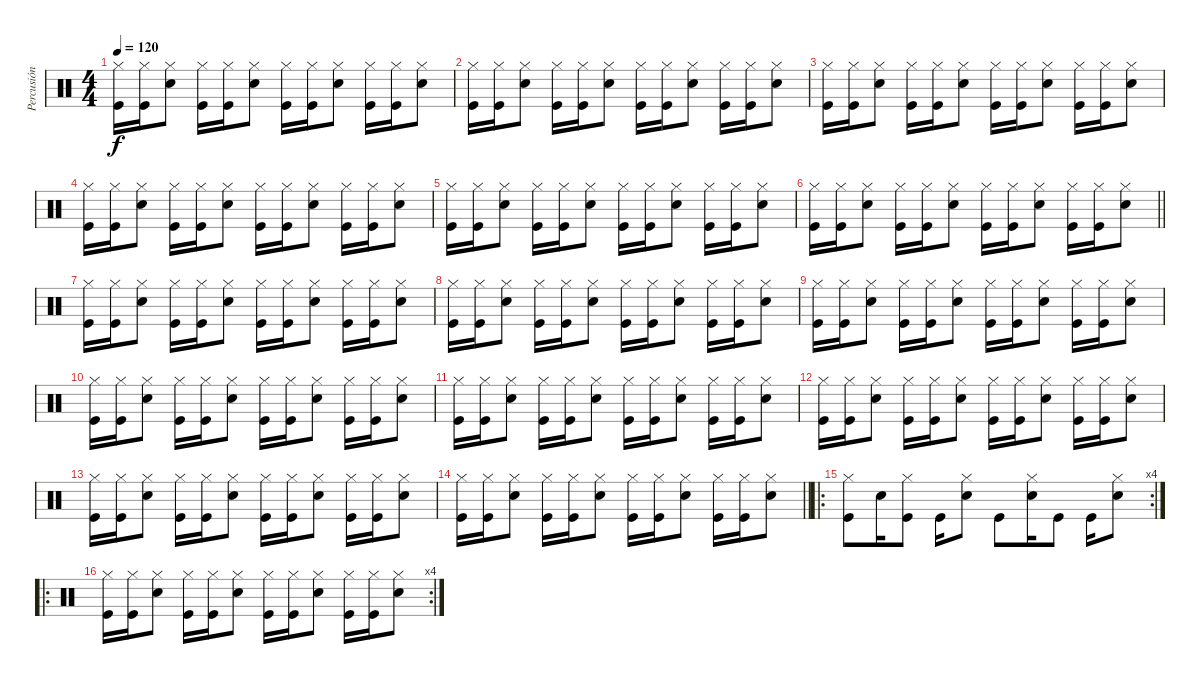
\track ("Percusión" "Percusión") {instrument percussion}
\staff {score}
\articulation defaults
\ts (4 4)
\tempo 120
\clef neutral
\ks c
("Hi-Hat (closed)" "Kick (hit)").16{dy f} ("Hi-Hat (closed)" "Kick (hit)").16 ("Hi-Hat (closed)" "Electric Snare (hit)").8 ("Hi-Hat (closed)" "Kick (hit)").16 ("Hi-Hat (closed)" "Kick (hit)").16 ("Hi-Hat (closed)" "Electric Snare (hit)").8 ("Hi-Hat (closed)" "Kick (hit)").16 ("Hi-Hat (closed)" "Kick (hit)").16 ("Hi-Hat (closed)" "Electric Snare (hit)").8 ("Hi-Hat (closed)" "Kick (hit)").16 ("Hi-Hat (closed)" "Kick (hit)").16 ("Hi-Hat (closed)" "Electric Snare (hit)").8 |
("Hi-Hat (closed)" "Kick (hit)").16 ("Hi-Hat (closed)" "Kick (hit)").16 ("Hi-Hat (closed)" "Electric Snare (hit)").8 ("Hi-Hat (closed)" "Kick (hit)").16 ("Hi-Hat (closed)" "Kick (hit)").16 ("Hi-Hat (closed)" "Electric Snare (hit)").8 ("Hi-Hat (closed)" "Kick (hit)").16 ("Hi-Hat (closed)" "Kick (hit)").16 ("Hi-Hat (closed)" "Electric Snare (hit)").8 ("Hi-Hat (closed)" "Kick (hit)").16 ("Hi-Hat (closed)" "Kick (hit)").16 ("Hi-Hat (closed)" "Electric Snare (hit)").8 |
("Hi-Hat (closed)" "Kick (hit)").16 ("Hi-Hat (closed)" "Kick (hit)").16 ("Hi-Hat (closed)" "Electric Snare (hit)").8 ("Hi-Hat (closed)" "Kick (hit)").16 ("Hi-Hat (closed)" "Kick (hit)").16 ("Hi-Hat (closed)" "Electric Snare (hit)").8 ("Hi-Hat (closed)" "Kick (hit)").16 ("Hi-Hat (closed)" "Kick (hit)").16 ("Hi-Hat (closed)" "Electric Snare (hit)").8 ("Hi-Hat (closed)" "Kick (hit)").16 ("Hi-Hat (closed)" "Kick (hit)").16 ("Hi-Hat (closed)" "Electric Snare (hit)").8 |
("Hi-Hat (closed)" "Kick (hit)").16 ("Hi-Hat (closed)" "Kick (hit)").16 ("Hi-Hat (closed)" "Electric Snare (hit)").8 ("Hi-Hat (closed)" "Kick (hit)").16 ("Hi-Hat (closed)" "Kick (hit)").16 ("Hi-Hat (closed)" "Electric Snare (hit)").8 ("Hi-Hat (closed)" "Kick (hit)").16 ("Hi-Hat (closed)" "Kick (hit)").16 ("Hi-Hat (closed)" "Electric Snare (hit)").8 ("Hi-Hat (closed)" "Kick (hit)").16 ("Hi-Hat (closed)" "Kick (hit)").16 ("Hi-Hat (closed)" "Electric Snare (hit)").8 |
("Hi-Hat (closed)" "Kick (hit)").16 ("Hi-Hat (closed)" "Kick (hit)").16 ("Hi-Hat (closed)" "Electric Snare (hit)").8 ("Hi-Hat (closed)" "Kick (hit)").16 ("Hi-Hat (closed)" "Kick (hit)").16 ("Hi-Hat (closed)" "Electric Snare (hit)").8 ("Hi-Hat (closed)" "Kick (hit)").16 ("Hi-Hat (closed)" "Kick (hit)").16 ("Hi-Hat (closed)" "Electric Snare (hit)").8 ("Hi-Hat (closed)" "Kick (hit)").16 ("Hi-Hat (closed)" "Kick (hit)").16 ("Hi-Hat (closed)" "Electric Snare (hit)").8 |
\barLineRight lightlight
("Hi-Hat (closed)" "Kick (hit)").16 ("Hi-Hat (closed)" "Kick (hit)").16 ("Hi-Hat (closed)" "Electric Snare (hit)").8 ("Hi-Hat (closed)" "Kick (hit)").16 ("Hi-Hat (closed)" "Kick (hit)").16 ("Hi-Hat (closed)" "Electric Snare (hit)").8 ("Hi-Hat (closed)" "Kick (hit)").16 ("Hi-Hat (closed)" "Kick (hit)").16 ("Hi-Hat (closed)" "Electric Snare (hit)").8 ("Hi-Hat (closed)" "Kick (hit)").16 ("Hi-Hat (closed)" "Kick (hit)").16 ("Hi-Hat (closed)" "Electric Snare (hit)").8 |
("Hi-Hat (closed)" "Kick (hit)").16 ("Hi-Hat (closed)" "Kick (hit)").16 ("Hi-Hat (closed)" "Electric Snare (hit)").8 ("Hi-Hat (closed)" "Kick (hit)").16 ("Hi-Hat (closed)" "Kick (hit)").16 ("Hi-Hat (closed)" "Electric Snare (hit)").8 ("Hi-Hat (closed)" "Kick (hit)").16 ("Hi-Hat (closed)" "Kick (hit)").16 ("Hi-Hat (closed)" "Electric Snare (hit)").8 ("Hi-Hat (closed)" "Kick (hit)").16 ("Hi-Hat (closed)" "Kick (hit)").16 ("Hi-Hat (closed)" "Electric Snare (hit)").8 |
("Hi-Hat (closed)" "Kick (hit)").16 ("Hi-Hat (closed)" "Kick (hit)").16 ("Hi-Hat (closed)" "Electric Snare (hit)").8 ("Hi-Hat (closed)" "Kick (hit)").16 ("Hi-Hat (closed)" "Kick (hit)").16 ("Hi-Hat (closed)" "Electric Snare (hit)").8 ("Hi-Hat (closed)" "Kick (hit)").16 ("Hi-Hat (closed)" "Kick (hit)").16 ("Hi-Hat (closed)" "Electric Snare (hit)").8 ("Hi-Hat (closed)" "Kick (hit)").16 ("Hi-Hat (closed)" "Kick (hit)").16 ("Hi-Hat (closed)" "Electric Snare (hit)").8 |
("Hi-Hat (closed)" "Kick (hit)").16 ("Hi-Hat (closed)" "Kick (hit)").16 ("Hi-Hat (closed)" "Electric Snare (hit)").8 ("Hi-Hat (closed)" "Kick (hit)").16 ("Hi-Hat (closed)" "Kick (hit)").16 ("Hi-Hat (closed)" "Electric Snare (hit)").8 ("Hi-Hat (closed)" "Kick (hit)").16 ("Hi-Hat (closed)" "Kick (hit)").16 ("Hi-Hat (closed)" "Electric Snare (hit)").8 ("Hi-Hat (closed)" "Kick (hit)").16 ("Hi-Hat (closed)" "Kick (hit)").16 ("Hi-Hat (closed)" "Electric Snare (hit)").8 |
("Hi-Hat (closed)" "Kick (hit)").16 ("Hi-Hat (closed)" "Kick (hit)").16 ("Hi-Hat (closed)" "Electric Snare (hit)").8 ("Hi-Hat (closed)" "Kick (hit)").16 ("Hi-Hat (closed)" "Kick (hit)").16 ("Hi-Hat (closed)" "Electric Snare (hit)").8 ("Hi-Hat (closed)" "Kick (hit)").16 ("Hi-Hat (closed)" "Kick (hit)").16 ("Hi-Hat (closed)" "Electric Snare (hit)").8 ("Hi-Hat (closed)" "Kick (hit)").16 ("Hi-Hat (closed)" "Kick (hit)").16 ("Hi-Hat (closed)" "Electric Snare (hit)").8 |
("Hi-Hat (closed)" "Kick (hit)").16 ("Hi-Hat (closed)" "Kick (hit)").16 ("Hi-Hat (closed)" "Electric Snare (hit)").8 ("Hi-Hat (closed)" "Kick (hit)").16 ("Hi-Hat (closed)" "Kick (hit)").16 ("Hi-Hat (closed)" "Electric Snare (hit)").8 ("Hi-Hat (closed)" "Kick (hit)").16 ("Hi-Hat (closed)" "Kick (hit)").16 ("Hi-Hat (closed)" "Electric Snare (hit)").8 ("Hi-Hat (closed)" "Kick (hit)").16 ("Hi-Hat (closed)" "Kick (hit)").16 ("Hi-Hat (closed)" "Electric Snare (hit)").8 |
("Hi-Hat (closed)" "Kick (hit)").16 ("Hi-Hat (closed)" "Kick (hit)").16 ("Hi-Hat (closed)" "Electric Snare (hit)").8 ("Hi-Hat (closed)" "Kick (hit)").16 ("Hi-Hat (closed)" "Kick (hit)").16 ("Hi-Hat (closed)" "Electric Snare (hit)").8 ("Hi-Hat (closed)" "Kick (hit)").16 ("Hi-Hat (closed)" "Kick (hit)").16 ("Hi-Hat (closed)" "Electric Snare (hit)").8 ("Hi-Hat (closed)" "Kick (hit)").16 ("Hi-Hat (closed)" "Kick (hit)").16 ("Hi-Hat (closed)" "Electric Snare (hit)").8 |
("Hi-Hat (closed)" "Kick (hit)").16 ("Hi-Hat (closed)" "Kick (hit)").16 ("Hi-Hat (closed)" "Electric Snare (hit)").8 ("Hi-Hat (closed)" "Kick (hit)").16 ("Hi-Hat (closed)" "Kick (hit)").16 ("Hi-Hat (closed)" "Electric Snare (hit)").8 ("Hi-Hat (closed)" "Kick (hit)").16 ("Hi-Hat (closed)" "Kick (hit)").16 ("Hi-Hat (closed)" "Electric Snare (hit)").8 ("Hi-Hat (closed)" "Kick (hit)").16 ("Hi-Hat (closed)" "Kick (hit)").16 ("Hi-Hat (closed)" "Electric Snare (hit)").8 |
\barLineRight lightlight
("Hi-Hat (closed)" "Kick (hit)").16 ("Hi-Hat (closed)" "Kick (hit)").16 ("Hi-Hat (closed)" "Electric Snare (hit)").8 ("Hi-Hat (closed)" "Kick (hit)").16 ("Hi-Hat (closed)" "Kick (hit)").16 ("Hi-Hat (closed)" "Electric Snare (hit)").8 ("Hi-Hat (closed)" "Kick (hit)").16 ("Hi-Hat (closed)" "Kick (hit)").16 ("Hi-Hat (closed)" "Electric Snare (hit)").8 ("Hi-Hat (closed)" "Kick (hit)").16 ("Hi-Hat (closed)" "Kick (hit)").16 ("Hi-Hat (closed)" "Electric Snare (hit)").8 |
\ro
\rc 4
("Hi-Hat (closed)" "Kick (hit)").8 "Electric Snare (hit)".16 ("Hi-Hat (closed)" "Kick (hit)").8 "Kick (hit)".16 ("Hi-Hat (closed)" "Electric Snare (hit)").8 "Kick (hit)".8 ("Hi-Hat (closed)" "Electric Snare (hit)").16 "Kick (hit)".8 "Kick (hit)".16 ("Hi-Hat (closed)" "Electric Snare (hit)").8 |
\ro
\rc 4
("Hi-Hat (closed)" "Kick (hit)").16 ("Hi-Hat (closed)" "Kick (hit)").16 ("Hi-Hat (closed)" "Electric Snare (hit)").8 ("Hi-Hat (closed)" "Kick (hit)").16 ("Hi-Hat (closed)" "Kick (hit)").16 ("Hi-Hat (closed)" "Electric Snare (hit)").8 ("Hi-Hat (closed)" "Kick (hit)").16 ("Hi-Hat (closed)" "Kick (hit)").16 ("Hi-Hat (closed)" "Electric Snare (hit)").8 ("Hi-Hat (closed)" "Kick (hit)").16 ("Hi-Hat (closed)" "Kick (hit)").16 ("Hi-Hat (closed)" "Electric Snare (hit)").8
